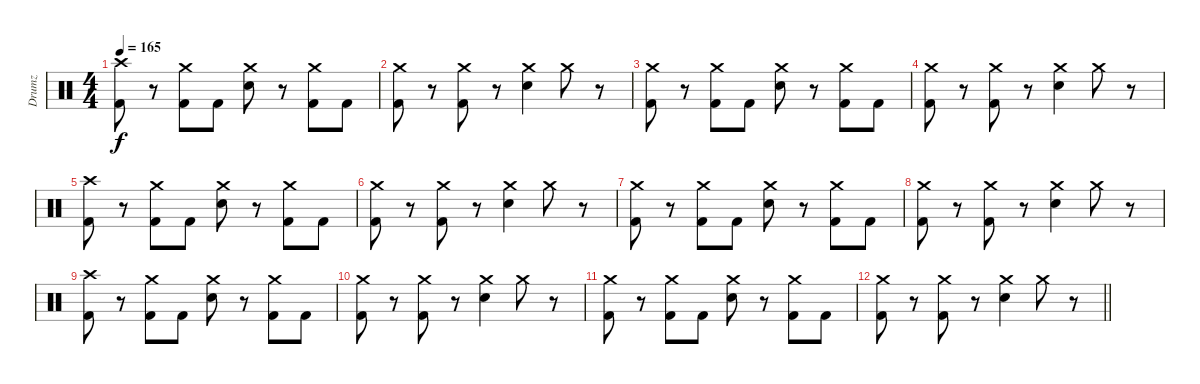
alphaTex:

\track ("Drumz" "Drumz") {instrument percussion}
\staff {score}
\articulation defaults
\ts (4 4)
\tempo 165
\clef neutral
\ks c
("Kick (hit) 2" "Crash high (hit)").8{dy f} r.8 ("Crash medium (hit)" "Kick (hit) 2").8 "Kick (hit) 2".8 ("Crash medium (hit)" "Electric Snare (hit)").8 r.8 ("Kick (hit) 2" "Crash medium (hit)").8 "Kick (hit) 2".8 |
("Crash medium (hit)" "Kick (hit) 2").8 r.8 ("Crash medium (hit)" "Kick (hit) 2").8 r.8 ("Crash medium (hit)" "Snare (hit) 2").4 "Crash medium (hit)".8 r.8 |
("Crash medium (hit)" "Kick (hit) 2").8 r.8 ("Crash medium (hit)" "Kick (hit) 2").8 "Kick (hit) 2".8 ("Crash medium (hit)" "Electric Snare (hit)").8 r.8 ("Kick (hit) 2" "Crash medium (hit)").8 "Kick (hit) 2".8 |
("Crash medium (hit)" "Kick (hit) 2").8 r.8 ("Crash medium (hit)" "Kick (hit) 2").8 r.8 ("Crash medium (hit)" "Snare (hit) 2").4 "Crash medium (hit)".8 r.8 |
("Kick (hit) 2" "Crash high (hit)").8 r.8 ("Crash medium (hit)" "Kick (hit) 2").8 "Kick (hit) 2".8 ("Crash medium (hit)" "Electric Snare (hit)").8 r.8 ("Kick (hit) 2" "Crash medium (hit)").8 "Kick (hit) 2".8 |
("Crash medium (hit)" "Kick (hit) 2").8 r.8 ("Crash medium (hit)" "Kick (hit) 2").8 r.8 ("Crash medium (hit)" "Snare (hit) 2").4 "Crash medium (hit)".8 r.8 |
("Crash medium (hit)" "Kick (hit) 2").8 r.8 ("Crash medium (hit)" "Kick (hit) 2").8 "Kick (hit) 2".8 ("Crash medium (hit)" "Electric Snare (hit)").8 r.8 ("Kick (hit) 2" "Crash medium (hit)").8 "Kick (hit) 2".8 |
("Crash medium (hit)" "Kick (hit) 2").8 r.8 ("Crash medium (hit)" "Kick (hit) 2").8 r.8 ("Crash medium (hit)" "Snare (hit) 2").4 "Crash medium (hit)".8 r.8 |
("Kick (hit) 2" "Crash high (hit)").8 r.8 ("Crash medium (hit)" "Kick (hit) 2").8 "Kick (hit) 2".8 ("Crash medium (hit)" "Electric Snare (hit)").8 r.8 ("Kick (hit) 2" "Crash medium (hit)").8 "Kick (hit) 2".8 |
("Crash medium (hit)" "Kick (hit) 2").8 r.8 ("Crash medium (hit)" "Kick (hit) 2").8 r.8 ("Crash medium (hit)" "Snare (hit) 2").4 "Crash medium (hit)".8 r.8 |
("Crash medium (hit)" "Kick (hit) 2").8 r.8 ("Crash medium (hit)" "Kick (hit) 2").8 "Kick (hit) 2".8 ("Crash medium (hit)" "Electric Snare (hit)").8 r.8 ("Kick (hit) 2" "Crash medium (hit)").8 "Kick (hit) 2".8 |
\barLineRight lightlight
("Crash medium (hit)" "Kick (hit) 2").8 r.8 ("Crash medium (hit)" "Kick (hit) 2").8 r.8 ("Crash medium (hit)" "Snare (hit) 2").4 "Crash medium (hit)".8 r.8
